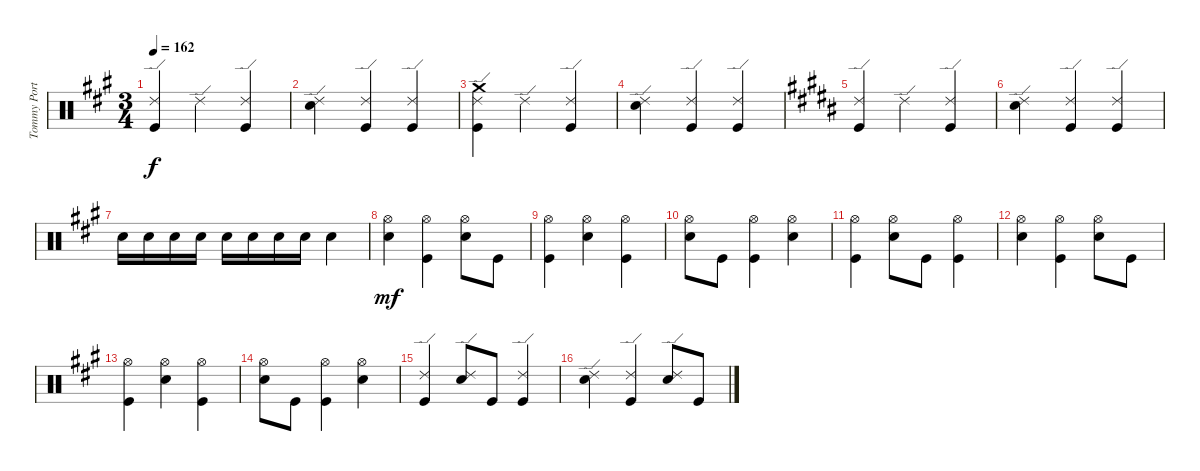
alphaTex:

\track ("Tommy Portimo (Drums)" "Tommy Port") {instrument percussion}
\staff {score}
\articulation defaults
\ts (3 4)
\tempo 162
\clef neutral
\ks a
("Kick (hit)" "Ride (edge) 2").4{dy f} "Ride (edge) 2".4 ("Kick (hit)" "Ride (edge) 2").4 |
("Electric Snare (hit)" "Ride (edge) 2").4 ("Kick (hit)" "Ride (edge) 2").4 ("Kick (hit)" "Ride (edge) 2").4 |
("Kick (hit)" "Ride (edge) 2" "Crash medium (hit)").4 "Ride (edge) 2".4 ("Kick (hit)" "Ride (edge) 2").4 |
("Electric Snare (hit)" "Ride (edge) 2").4 ("Kick (hit)" "Ride (edge) 2").4 ("Kick (hit)" "Ride (edge) 2").4 |
\ks b
("Kick (hit)" "Ride (edge) 2").4 "Ride (edge) 2".4 ("Kick (hit)" "Ride (edge) 2").4 |
("Electric Snare (hit)" "Ride (edge) 2").4 ("Kick (hit)" "Ride (edge) 2").4 ("Kick (hit)" "Ride (edge) 2").4 |
\ks a "Electric Snare (hit)".16 "Electric Snare (hit)".16 "Electric Snare (hit)".16 "Electric Snare (hit)".16 "Electric Snare (hit)".16 "Electric Snare (hit)".16 "Electric Snare (hit)".16 "Electric Snare (hit)".16 "Electric Snare (hit)".4
|
("Electric Snare (hit)" "Hi-Hat (open)").4{dy mf} ("Kick (hit)" "Hi-Hat (open)").4 ("Electric Snare (hit)" "Hi-Hat (open)").8 "Kick (hit)".8 |
("Kick (hit)" "Hi-Hat (open)").4 ("Electric Snare (hit)" "Hi-Hat (open)").4 ("Kick (hit)" "Hi-Hat (open)").4 |
("Electric Snare (hit)" "Hi-Hat (open)").8 "Kick (hit)".8 ("Kick (hit)" "Hi-Hat (open)").4 ("Electric Snare (hit)" "Hi-Hat (open)").4 |
("Kick (hit)" "Hi-Hat (open)").4 ("Electric Snare (hit)" "Hi-Hat (open)").8 "Kick (hit)".8 ("Kick (hit)" "Hi-Hat (open)").4 |
("Electric Snare (hit)" "Hi-Hat (open)").4 ("Kick (hit)" "Hi-Hat (open)").4 ("Electric Snare (hit)" "Hi-Hat (open)").8 "Kick (hit)".8 |
("Kick (hit)" "Hi-Hat (open)").4 ("Electric Snare (hit)" "Hi-Hat (open)").4 ("Kick (hit)" "Hi-Hat (open)").4 |
("Electric Snare (hit)" "Hi-Hat (open)").8 "Kick (hit)".8 ("Kick (hit)" "Hi-Hat (open)").4 ("Electric Snare (hit)" "Hi-Hat (open)").4 |
("Kick (hit)" "Ride (edge) 2").4 ("Electric Snare (hit)" "Ride (edge) 2").8 "Kick (hit)".8 ("Kick (hit)" "Ride (edge) 2").4 |
("Electric Snare (hit)" "Ride (edge) 2").4 ("Kick (hit)" "Ride (edge) 2").4 ("Electric Snare (hit)" "Ride (edge) 2").8 "Kick (hit)".8
